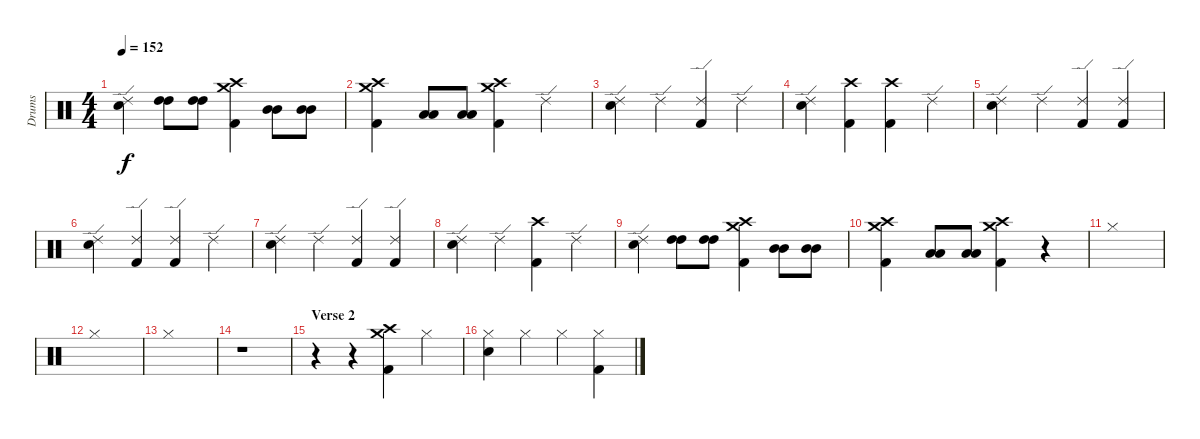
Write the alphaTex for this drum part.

\track ("Drums" "Drums") {instrument percussion}
\staff {score}
\articulation defaults
\ts (4 4)
\tempo 152
\clef neutral
\ks c
("Electric Snare (hit)" "Ride (edge) 2").4{dy f} ("High Tom (hit)" "High Tom (hit)").8 ("High Tom (hit)" "High Tom (hit)").8 ("Kick (hit) 2" "Crash high (hit)" "Crash medium (hit)").4 ("Mid Tom (hit)" "Mid Tom (hit)").8 ("Mid Tom (hit)" "Mid Tom (hit)").8 |
("Kick (hit) 2" "Crash high (hit)" "Crash medium (hit)").4 ("Low Tom (hit)" "Low Tom (hit)").8 ("Low Tom (hit)" "Low Tom (hit)").8 ("Kick (hit) 2" "Crash high (hit)" "Crash medium (hit)").4 "Ride (edge) 2".4 |
("Electric Snare (hit)" "Ride (edge) 2").4 "Ride (edge) 2".4 ("Kick (hit) 2" "Ride (edge) 2").4 "Ride (edge) 2".4 |
("Electric Snare (hit)" "Ride (edge) 2").4 ("Kick (hit) 2" "Crash high (hit)").4 ("Kick (hit) 2" "Crash high (hit)").4 "Ride (edge) 2".4 |
("Electric Snare (hit)" "Ride (edge) 2").4 "Ride (edge) 2".4 ("Kick (hit) 2" "Ride (edge) 2").4 ("Kick (hit) 2" "Ride (edge) 2").4 |
("Electric Snare (hit)" "Ride (edge) 2").4 ("Kick (hit) 2" "Ride (edge) 2").4 ("Kick (hit) 2" "Ride (edge) 2").4 "Ride (edge) 2".4 |
("Electric Snare (hit)" "Ride (edge) 2").4 "Ride (edge) 2".4 ("Kick (hit) 2" "Ride (edge) 2").4 ("Kick (hit) 2" "Ride (edge) 2").4 |
("Electric Snare (hit)" "Ride (edge) 2").4 "Ride (edge) 2".4 ("Kick (hit) 2" "Crash high (hit)").4 "Ride (edge) 2".4 |
("Electric Snare (hit)" "Ride (edge) 2").4 ("High Tom (hit)" "High Tom (hit)").8 ("High Tom (hit)" "High Tom (hit)").8 ("Kick (hit) 2" "Crash high (hit)" "Crash medium (hit)").4 ("Mid Tom (hit)" "Mid Tom (hit)").8 ("Mid Tom (hit)" "Mid Tom (hit)").8 |
("Kick (hit) 2" "Crash high (hit)" "Crash medium (hit)").4 ("Low Tom (hit)" "Low Tom (hit)").8 ("Low Tom (hit)" "Low Tom (hit)").8 ("Kick (hit) 2" "Crash high (hit)" "Crash medium (hit)").4 r.4 |
"Hi-Hat (closed)".1 |
"Hi-Hat (closed)".1 |
"Hi-Hat (closed)".1 |
r.1 |
\section ("" "Verse 2")
r.4 r.4 ("Kick (hit) 2" "Crash high (hit)" "Crash medium (hit)").4 "Hi-Hat (closed)".4 |
("Electric Snare (hit)" "Hi-Hat (closed)").4 "Hi-Hat (closed)".4 "Hi-Hat (closed)".4 ("Kick (hit) 2" "Hi-Hat (closed)").4
